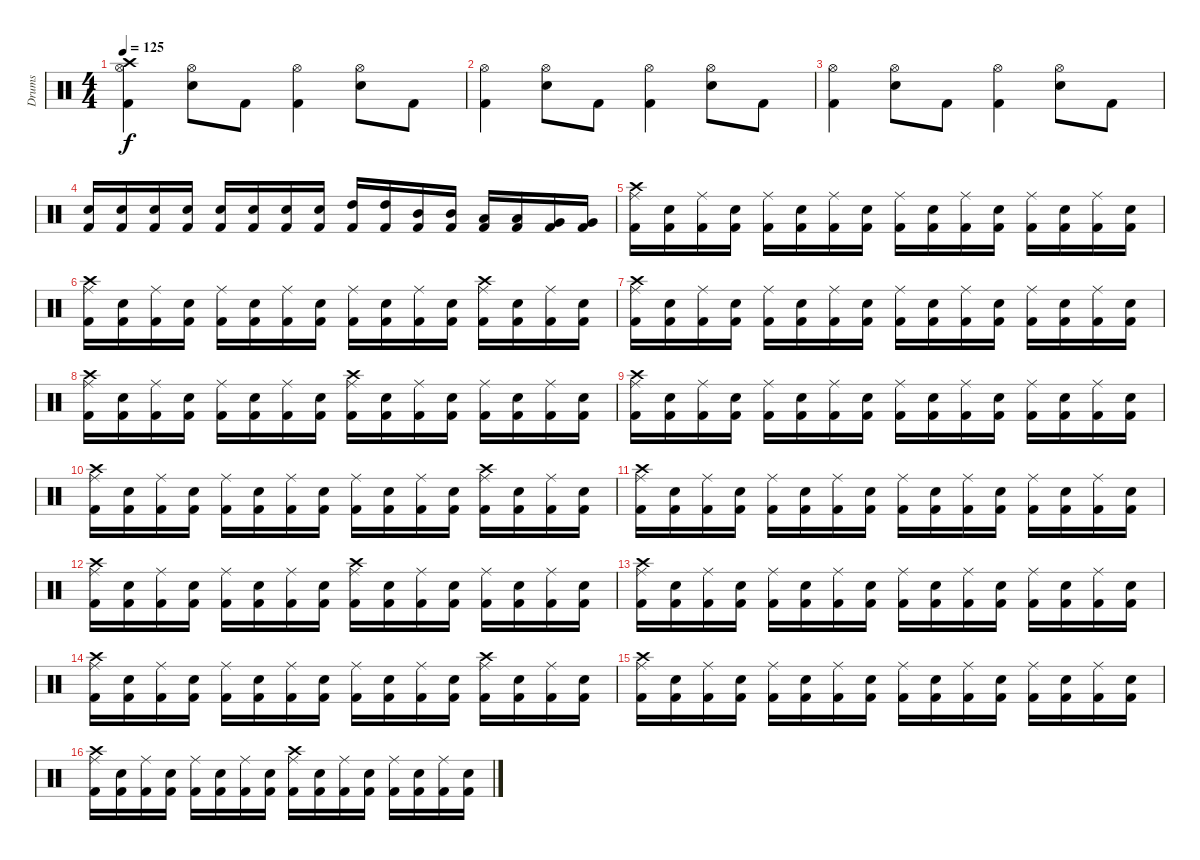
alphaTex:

\track ("Drums" "Drums") {instrument percussion}
\staff {score}
\articulation defaults
\ts (4 4)
\tempo 125
\clef neutral
\ks c
("Crash high (hit)" "Hi-Hat (open)" "Kick (hit) 2").4{dy f} ("Hi-Hat (open)" "Snare (hit) 2").8 "Kick (hit) 2".8 ("Hi-Hat (open)" "Kick (hit) 2").4 ("Hi-Hat (open)" "Snare (hit) 2").8 "Kick (hit) 2".8 |
("Hi-Hat (open)" "Kick (hit) 2").4 ("Hi-Hat (open)" "Snare (hit) 2").8 "Kick (hit) 2".8 ("Hi-Hat (open)" "Kick (hit) 2").4 ("Hi-Hat (open)" "Snare (hit) 2").8 "Kick (hit) 2".8 |
("Hi-Hat (open)" "Kick (hit) 2").4 ("Hi-Hat (open)" "Snare (hit) 2").8 "Kick (hit) 2".8 ("Hi-Hat (open)" "Kick (hit) 2").4 ("Hi-Hat (open)" "Snare (hit) 2").8 "Kick (hit) 2".8 |
("Snare (hit) 2" "Kick (hit) 2").16 ("Snare (hit) 2" "Kick (hit) 2").16 ("Snare (hit) 2" "Kick (hit) 2").16 ("Snare (hit) 2" "Kick (hit) 2").16 ("Snare (hit) 2" "Kick (hit) 2").16 ("Snare (hit) 2" "Kick (hit) 2").16 ("Snare (hit) 2" "Kick (hit) 2").16 ("Snare (hit) 2" "Kick (hit) 2").16 ("High Tom (hit)" "Kick (hit) 2").16 ("High Tom (hit)" "Kick (hit) 2").16 ("Mid Tom (hit)" "Kick (hit) 2").16 ("Mid Tom (hit)" "Kick (hit) 2").16 ("Low Tom (hit)" "Kick (hit) 2").16 ("Low Tom (hit)" "Kick (hit) 2").16 ("Very Low Tom (hit)" "Kick (hit) 2").16 ("Very Low Tom (hit)" "Kick (hit) 2").16 |
("Crash high (hit)" "Ride (middle)" "Kick (hit) 2").16 ("Snare (hit) 2" "Kick (hit) 2").16 ("Ride (middle)" "Kick (hit) 2").16 ("Snare (hit) 2" "Kick (hit) 2").16 ("Ride (middle)" "Kick (hit) 2").16 ("Snare (hit) 2" "Kick (hit) 2").16 ("Ride (middle)" "Kick (hit) 2").16 ("Snare (hit) 2" "Kick (hit) 2").16 ("Ride (middle)" "Kick (hit) 2").16 ("Snare (hit) 2" "Kick (hit) 2").16 ("Ride (middle)" "Kick (hit) 2").16 ("Snare (hit) 2" "Kick (hit) 2").16 ("Ride (middle)" "Kick (hit) 2").16 ("Snare (hit) 2" "Kick (hit) 2").16 ("Ride (middle)" "Kick (hit) 2").16 ("Snare (hit) 2" "Kick (hit) 2").16 |
("Crash high (hit)" "Ride (middle)" "Kick (hit) 2").16 ("Snare (hit) 2" "Kick (hit) 2").16 ("Ride (middle)" "Kick (hit) 2").16 ("Snare (hit) 2" "Kick (hit) 2").16 ("Ride (middle)" "Kick (hit) 2").16 ("Snare (hit) 2" "Kick (hit) 2").16 ("Ride (middle)" "Kick (hit) 2").16 ("Snare (hit) 2" "Kick (hit) 2").16 ("Ride (middle)" "Kick (hit) 2").16 ("Snare (hit) 2" "Kick (hit) 2").16 ("Ride (middle)" "Kick (hit) 2").16 ("Snare (hit) 2" "Kick (hit) 2").16 ("Crash high (hit)" "Ride (middle)" "Kick (hit) 2").16 ("Snare (hit) 2" "Kick (hit) 2").16 ("Ride (middle)" "Kick (hit) 2").16 ("Snare (hit) 2" "Kick (hit) 2").16 |
("Crash high (hit)" "Ride (middle)" "Kick (hit) 2").16 ("Snare (hit) 2" "Kick (hit) 2").16 ("Ride (middle)" "Kick (hit) 2").16 ("Snare (hit) 2" "Kick (hit) 2").16 ("Ride (middle)" "Kick (hit) 2").16 ("Snare (hit) 2" "Kick (hit) 2").16 ("Ride (middle)" "Kick (hit) 2").16 ("Snare (hit) 2" "Kick (hit) 2").16 ("Ride (middle)" "Kick (hit) 2").16 ("Snare (hit) 2" "Kick (hit) 2").16 ("Ride (middle)" "Kick (hit) 2").16 ("Snare (hit) 2" "Kick (hit) 2").16 ("Ride (middle)" "Kick (hit) 2").16 ("Snare (hit) 2" "Kick (hit) 2").16 ("Ride (middle)" "Kick (hit) 2").16 ("Snare (hit) 2" "Kick (hit) 2").16 |
("Crash high (hit)" "Ride (middle)" "Kick (hit) 2").16 ("Snare (hit) 2" "Kick (hit) 2").16 ("Ride (middle)" "Kick (hit) 2").16 ("Snare (hit) 2" "Kick (hit) 2").16 ("Ride (middle)" "Kick (hit) 2").16 ("Snare (hit) 2" "Kick (hit) 2").16 ("Ride (middle)" "Kick (hit) 2").16 ("Snare (hit) 2" "Kick (hit) 2").16 ("Crash high (hit)" "Ride (middle)" "Kick (hit) 2").16 ("Snare (hit) 2" "Kick (hit) 2").16 ("Ride (middle)" "Kick (hit) 2").16 ("Snare (hit) 2" "Kick (hit) 2").16 ("Ride (middle)" "Kick (hit) 2").16 ("Snare (hit) 2" "Kick (hit) 2").16 ("Ride (middle)" "Kick (hit) 2").16 ("Snare (hit) 2" "Kick (hit) 2").16 |
("Crash high (hit)" "Ride (middle)" "Kick (hit) 2").16 ("Snare (hit) 2" "Kick (hit) 2").16 ("Ride (middle)" "Kick (hit) 2").16 ("Snare (hit) 2" "Kick (hit) 2").16 ("Ride (middle)" "Kick (hit) 2").16 ("Snare (hit) 2" "Kick (hit) 2").16 ("Ride (middle)" "Kick (hit) 2").16 ("Snare (hit) 2" "Kick (hit) 2").16 ("Ride (middle)" "Kick (hit) 2").16 ("Snare (hit) 2" "Kick (hit) 2").16 ("Ride (middle)" "Kick (hit) 2").16 ("Snare (hit) 2" "Kick (hit) 2").16 ("Ride (middle)" "Kick (hit) 2").16 ("Snare (hit) 2" "Kick (hit) 2").16 ("Ride (middle)" "Kick (hit) 2").16 ("Snare (hit) 2" "Kick (hit) 2").16 |
("Crash high (hit)" "Ride (middle)" "Kick (hit) 2").16 ("Snare (hit) 2" "Kick (hit) 2").16 ("Ride (middle)" "Kick (hit) 2").16 ("Snare (hit) 2" "Kick (hit) 2").16 ("Ride (middle)" "Kick (hit) 2").16 ("Snare (hit) 2" "Kick (hit) 2").16 ("Ride (middle)" "Kick (hit) 2").16 ("Snare (hit) 2" "Kick (hit) 2").16 ("Ride (middle)" "Kick (hit) 2").16 ("Snare (hit) 2" "Kick (hit) 2").16 ("Ride (middle)" "Kick (hit) 2").16 ("Snare (hit) 2" "Kick (hit) 2").16 ("Crash high (hit)" "Ride (middle)" "Kick (hit) 2").16 ("Snare (hit) 2" "Kick (hit) 2").16 ("Ride (middle)" "Kick (hit) 2").16 ("Snare (hit) 2" "Kick (hit) 2").16 |
("Crash high (hit)" "Ride (middle)" "Kick (hit) 2").16 ("Snare (hit) 2" "Kick (hit) 2").16 ("Ride (middle)" "Kick (hit) 2").16 ("Snare (hit) 2" "Kick (hit) 2").16 ("Ride (middle)" "Kick (hit) 2").16 ("Snare (hit) 2" "Kick (hit) 2").16 ("Ride (middle)" "Kick (hit) 2").16 ("Snare (hit) 2" "Kick (hit) 2").16 ("Ride (middle)" "Kick (hit) 2").16 ("Snare (hit) 2" "Kick (hit) 2").16 ("Ride (middle)" "Kick (hit) 2").16 ("Snare (hit) 2" "Kick (hit) 2").16 ("Ride (middle)" "Kick (hit) 2").16 ("Snare (hit) 2" "Kick (hit) 2").16 ("Ride (middle)" "Kick (hit) 2").16 ("Snare (hit) 2" "Kick (hit) 2").16 |
("Crash high (hit)" "Ride (middle)" "Kick (hit) 2").16 ("Snare (hit) 2" "Kick (hit) 2").16 ("Ride (middle)" "Kick (hit) 2").16 ("Snare (hit) 2" "Kick (hit) 2").16 ("Ride (middle)" "Kick (hit) 2").16 ("Snare (hit) 2" "Kick (hit) 2").16 ("Ride (middle)" "Kick (hit) 2").16 ("Snare (hit) 2" "Kick (hit) 2").16 ("Crash high (hit)" "Ride (middle)" "Kick (hit) 2").16 ("Snare (hit) 2" "Kick (hit) 2").16 ("Ride (middle)" "Kick (hit) 2").16 ("Snare (hit) 2" "Kick (hit) 2").16 ("Ride (middle)" "Kick (hit) 2").16 ("Snare (hit) 2" "Kick (hit) 2").16 ("Ride (middle)" "Kick (hit) 2").16 ("Snare (hit) 2" "Kick (hit) 2").16 |
("Crash high (hit)" "Ride (middle)" "Kick (hit) 2").16 ("Snare (hit) 2" "Kick (hit) 2").16 ("Ride (middle)" "Kick (hit) 2").16 ("Snare (hit) 2" "Kick (hit) 2").16 ("Ride (middle)" "Kick (hit) 2").16 ("Snare (hit) 2" "Kick (hit) 2").16 ("Ride (middle)" "Kick (hit) 2").16 ("Snare (hit) 2" "Kick (hit) 2").16 ("Ride (middle)" "Kick (hit) 2").16 ("Snare (hit) 2" "Kick (hit) 2").16 ("Ride (middle)" "Kick (hit) 2").16 ("Snare (hit) 2" "Kick (hit) 2").16 ("Ride (middle)" "Kick (hit) 2").16 ("Snare (hit) 2" "Kick (hit) 2").16 ("Ride (middle)" "Kick (hit) 2").16 ("Snare (hit) 2" "Kick (hit) 2").16 |
("Crash high (hit)" "Ride (middle)" "Kick (hit) 2").16 ("Snare (hit) 2" "Kick (hit) 2").16 ("Ride (middle)" "Kick (hit) 2").16 ("Snare (hit) 2" "Kick (hit) 2").16 ("Ride (middle)" "Kick (hit) 2").16 ("Snare (hit) 2" "Kick (hit) 2").16 ("Ride (middle)" "Kick (hit) 2").16 ("Snare (hit) 2" "Kick (hit) 2").16 ("Ride (middle)" "Kick (hit) 2").16 ("Snare (hit) 2" "Kick (hit) 2").16 ("Ride (middle)" "Kick (hit) 2").16 ("Snare (hit) 2" "Kick (hit) 2").16 ("Crash high (hit)" "Ride (middle)" "Kick (hit) 2").16 ("Snare (hit) 2" "Kick (hit) 2").16 ("Ride (middle)" "Kick (hit) 2").16 ("Snare (hit) 2" "Kick (hit) 2").16 |
("Crash high (hit)" "Ride (middle)" "Kick (hit) 2").16 ("Snare (hit) 2" "Kick (hit) 2").16 ("Ride (middle)" "Kick (hit) 2").16 ("Snare (hit) 2" "Kick (hit) 2").16 ("Ride (middle)" "Kick (hit) 2").16 ("Snare (hit) 2" "Kick (hit) 2").16 ("Ride (middle)" "Kick (hit) 2").16 ("Snare (hit) 2" "Kick (hit) 2").16 ("Ride (middle)" "Kick (hit) 2").16 ("Snare (hit) 2" "Kick (hit) 2").16 ("Ride (middle)" "Kick (hit) 2").16 ("Snare (hit) 2" "Kick (hit) 2").16 ("Ride (middle)" "Kick (hit) 2").16 ("Snare (hit) 2" "Kick (hit) 2").16 ("Ride (middle)" "Kick (hit) 2").16 ("Snare (hit) 2" "Kick (hit) 2").16 |
("Crash high (hit)" "Ride (middle)" "Kick (hit) 2").16 ("Snare (hit) 2" "Kick (hit) 2").16 ("Ride (middle)" "Kick (hit) 2").16 ("Snare (hit) 2" "Kick (hit) 2").16 ("Ride (middle)" "Kick (hit) 2").16 ("Snare (hit) 2" "Kick (hit) 2").16 ("Ride (middle)" "Kick (hit) 2").16 ("Snare (hit) 2" "Kick (hit) 2").16 ("Crash high (hit)" "Ride (middle)" "Kick (hit) 2").16 ("Snare (hit) 2" "Kick (hit) 2").16 ("Ride (middle)" "Kick (hit) 2").16 ("Snare (hit) 2" "Kick (hit) 2").16 ("Ride (middle)" "Kick (hit) 2").16 ("Snare (hit) 2" "Kick (hit) 2").16 ("Ride (middle)" "Kick (hit) 2").16 ("Snare (hit) 2" "Kick (hit) 2").16
